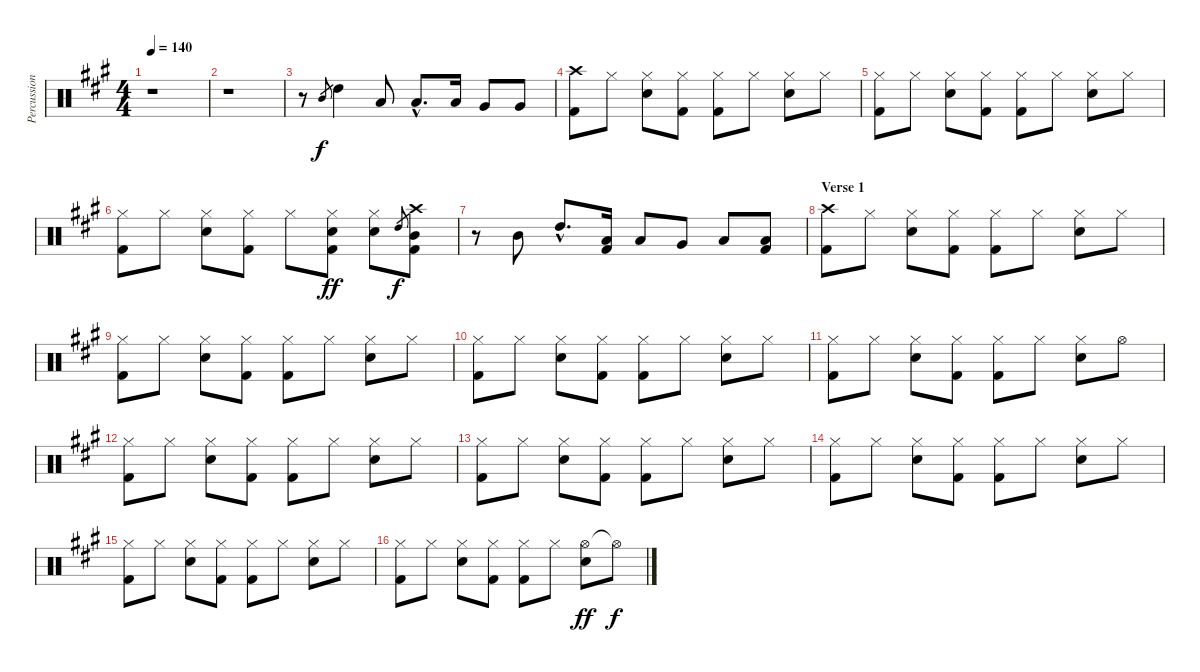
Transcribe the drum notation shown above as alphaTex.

\track ("Percussion" "Percussion") {instrument percussion}
\staff {score}
\articulation defaults
\ts (4 4)
\tempo 140
\clef neutral
\ks a
r.1{dy f} |
r.1 |
r.8 "Mid Tom (hit)".8{gr} "High Tom (hit)".4 "Low Tom (hit)".8 "Low Tom (hit)"{hac}.8{d} "Low Tom (hit)".16 "Very Low Tom (hit)".8 "Very Low Tom (hit)".8 |
("Crash high (hit)" "Kick (hit) 2").8 "Hi-Hat (closed)".8 ("Hi-Hat (closed)" "Electric Snare (hit)").8 ("Hi-Hat (closed)" "Kick (hit) 2").8 ("Hi-Hat (closed)" "Kick (hit) 2").8 "Hi-Hat (closed)".8 ("Hi-Hat (closed)" "Electric Snare (hit)").8 "Hi-Hat (closed)".8 |
("Hi-Hat (closed)" "Kick (hit) 2").8 "Hi-Hat (closed)".8 ("Hi-Hat (closed)" "Electric Snare (hit)").8 ("Hi-Hat (closed)" "Kick (hit) 2").8 ("Hi-Hat (closed)" "Kick (hit) 2").8 "Hi-Hat (closed)".8 ("Hi-Hat (closed)" "Electric Snare (hit)").8 "Hi-Hat (closed)".8 |
("Hi-Hat (closed)" "Kick (hit) 2").8 "Hi-Hat (closed)".8 ("Hi-Hat (closed)" "Electric Snare (hit)").8 ("Hi-Hat (closed)" "Kick (hit) 2").8 "Hi-Hat (closed)".8 ("Hi-Hat (closed)" "Electric Snare (hit)" "Kick (hit) 2").8{dy ff} ("Hi-Hat (closed)" "Electric Snare (hit)").8 "High Tom (hit)".8{gr dy f} ("Crash high (hit)" "Mid Tom (hit)" "Kick (hit) 2").8 |
r.8 "Mid Tom (hit)".8 "High Tom (hit)"{hac}.8{d} ("Low Tom (hit)" "Kick (hit) 2").16 "Low Tom (hit)".8 "Very Low Tom (hit)".8 "Low Floor Tom (hit)".8 ("Low Floor Tom (hit)" "Kick (hit) 2").8 |
\section ("" "Verse 1")
("Crash high (hit)" "Kick (hit) 2").8 "Hi-Hat (closed)".8 ("Hi-Hat (closed)" "Electric Snare (hit)").8 ("Hi-Hat (closed)" "Kick (hit) 2").8 ("Hi-Hat (closed)" "Kick (hit) 2").8 "Hi-Hat (closed)".8 ("Hi-Hat (closed)" "Electric Snare (hit)").8 "Hi-Hat (closed)".8 |
("Hi-Hat (closed)" "Kick (hit) 2").8 "Hi-Hat (closed)".8 ("Hi-Hat (closed)" "Electric Snare (hit)").8 ("Hi-Hat (closed)" "Kick (hit) 2").8 ("Hi-Hat (closed)" "Kick (hit) 2").8 "Hi-Hat (closed)".8 ("Hi-Hat (closed)" "Electric Snare (hit)").8 "Hi-Hat (closed)".8 |
("Hi-Hat (closed)" "Kick (hit) 2").8 "Hi-Hat (closed)".8 ("Hi-Hat (closed)" "Electric Snare (hit)").8 ("Hi-Hat (closed)" "Kick (hit) 2").8 ("Hi-Hat (closed)" "Kick (hit) 2").8 "Hi-Hat (closed)".8 ("Hi-Hat (closed)" "Electric Snare (hit)").8 "Hi-Hat (closed)".8 |
("Hi-Hat (closed)" "Kick (hit) 2").8 "Hi-Hat (closed)".8 ("Hi-Hat (closed)" "Electric Snare (hit)").8 ("Hi-Hat (closed)" "Kick (hit) 2").8 ("Hi-Hat (closed)" "Kick (hit) 2").8 "Hi-Hat (closed)".8 ("Hi-Hat (closed)" "Electric Snare (hit)").8 "Hi-Hat (open)".8 |
("Hi-Hat (closed)" "Kick (hit) 2").8 "Hi-Hat (closed)".8 ("Hi-Hat (closed)" "Electric Snare (hit)").8 ("Hi-Hat (closed)" "Kick (hit) 2").8 ("Hi-Hat (closed)" "Kick (hit) 2").8 "Hi-Hat (closed)".8 ("Hi-Hat (closed)" "Electric Snare (hit)").8 "Hi-Hat (closed)".8 |
("Hi-Hat (closed)" "Kick (hit) 2").8 "Hi-Hat (closed)".8 ("Hi-Hat (closed)" "Electric Snare (hit)").8 ("Hi-Hat (closed)" "Kick (hit) 2").8 ("Hi-Hat (closed)" "Kick (hit) 2").8 "Hi-Hat (closed)".8 ("Hi-Hat (closed)" "Electric Snare (hit)").8 "Hi-Hat (closed)".8 |
("Hi-Hat (closed)" "Kick (hit) 2").8 "Hi-Hat (closed)".8 ("Hi-Hat (closed)" "Electric Snare (hit)").8 ("Hi-Hat (closed)" "Kick (hit) 2").8 ("Hi-Hat (closed)" "Kick (hit) 2").8 "Hi-Hat (closed)".8 ("Hi-Hat (closed)" "Electric Snare (hit)").8 "Hi-Hat (closed)".8 |
("Hi-Hat (closed)" "Kick (hit) 2").8 "Hi-Hat (closed)".8 ("Hi-Hat (closed)" "Electric Snare (hit)").8 ("Hi-Hat (closed)" "Kick (hit) 2").8 ("Hi-Hat (closed)" "Kick (hit) 2").8 "Hi-Hat (closed)".8 ("Hi-Hat (closed)" "Electric Snare (hit)").8 "Hi-Hat (closed)".8 |
("Hi-Hat (closed)" "Kick (hit) 2").8 "Hi-Hat (closed)".8 ("Hi-Hat (closed)" "Electric Snare (hit)").8 ("Hi-Hat (closed)" "Kick (hit) 2").8 ("Hi-Hat (closed)" "Kick (hit) 2").8 "Hi-Hat (closed)".8 ("Hi-Hat (open)" "Electric Snare (hit)").8{dy ff} "Hi-Hat (open)"{t}.8{dy f}
